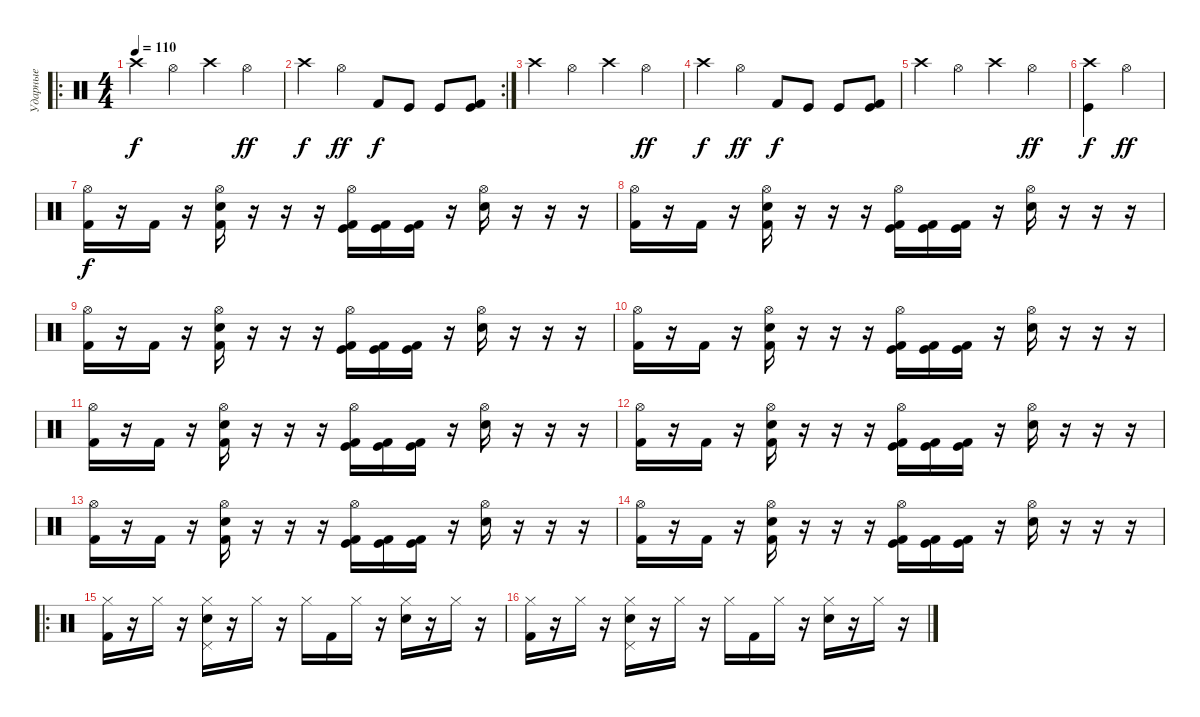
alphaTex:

\track ("Ударные" "Ударные") {instrument percussion}
\staff {score}
\articulation defaults
\ro
\ts (4 4)
\tempo 110
\clef neutral
\ks c "Crash high (hit)".4{dy f} "Hi-Hat (open)".4 "Crash high (hit)".4 "Hi-Hat (open)".4{dy ff}
|
\rc 2 "Crash high (hit)".4{dy f} "Hi-Hat (open)".4{dy ff} "Kick (hit) 2".8{dy f} "Kick (hit)".8 "Kick (hit)".8
("Kick (hit)" "Kick (hit) 2").8 |
"Crash high (hit)".4 "Hi-Hat (open)".4 "Crash high (hit)".4 "Hi-Hat (open)".4{dy ff} |
"Crash high (hit)".4{dy f} "Hi-Hat (open)".4{dy ff} "Kick (hit) 2".8{dy f} "Kick (hit)".8 "Kick (hit)".8 ("Kick (hit)" "Kick (hit) 2").8 |
"Crash high (hit)".4 "Hi-Hat (open)".4 "Crash high (hit)".4 "Hi-Hat (open)".4{dy ff} |
("Crash high (hit)" "Kick (hit)").4{dy f} "Hi-Hat (open)".4{dy ff} |
("Hi-Hat (open)" "Kick (hit) 2").16{dy f} r.16 "Kick (hit) 2".16 r.16 ("Hi-Hat (open)" "Electric Snare (hit)" "Kick (hit) 2").16 r.16 r.16 r.16 ("Hi-Hat (open)" "Kick (hit)" "Kick (hit) 2").16 ("Kick (hit)" "Kick (hit) 2").16 ("Kick (hit)" "Kick (hit) 2").16 r.16 ("Hi-Hat (open)" "Electric Snare (hit)").16 r.16 r.16 r.16 |
("Hi-Hat (open)" "Kick (hit) 2").16 r.16 "Kick (hit) 2".16 r.16 ("Hi-Hat (open)" "Electric Snare (hit)" "Kick (hit) 2").16 r.16 r.16 r.16 ("Hi-Hat (open)" "Kick (hit)" "Kick (hit) 2").16 ("Kick (hit)" "Kick (hit) 2").16 ("Kick (hit)" "Kick (hit) 2").16 r.16 ("Hi-Hat (open)" "Electric Snare (hit)").16 r.16 r.16 r.16 |
("Hi-Hat (open)" "Kick (hit) 2").16 r.16 "Kick (hit) 2".16 r.16 ("Hi-Hat (open)" "Electric Snare (hit)" "Kick (hit) 2").16 r.16 r.16 r.16 ("Hi-Hat (open)" "Kick (hit)" "Kick (hit) 2").16 ("Kick (hit)" "Kick (hit) 2").16 ("Kick (hit)" "Kick (hit) 2").16 r.16 ("Hi-Hat (open)" "Electric Snare (hit)").16 r.16 r.16 r.16 |
("Hi-Hat (open)" "Kick (hit) 2").16 r.16 "Kick (hit) 2".16 r.16 ("Hi-Hat (open)" "Electric Snare (hit)" "Kick (hit) 2").16 r.16 r.16 r.16 ("Hi-Hat (open)" "Kick (hit)" "Kick (hit) 2").16 ("Kick (hit)" "Kick (hit) 2").16 ("Kick (hit)" "Kick (hit) 2").16 r.16 ("Hi-Hat (open)" "Electric Snare (hit)").16 r.16 r.16 r.16 |
("Hi-Hat (open)" "Kick (hit) 2").16 r.16 "Kick (hit) 2".16 r.16 ("Hi-Hat (open)" "Electric Snare (hit)" "Kick (hit) 2").16 r.16 r.16 r.16 ("Hi-Hat (open)" "Kick (hit)" "Kick (hit) 2").16 ("Kick (hit)" "Kick (hit) 2").16 ("Kick (hit)" "Kick (hit) 2").16 r.16 ("Hi-Hat (open)" "Electric Snare (hit)").16 r.16 r.16 r.16 |
("Hi-Hat (open)" "Kick (hit) 2").16 r.16 "Kick (hit) 2".16 r.16 ("Hi-Hat (open)" "Electric Snare (hit)" "Kick (hit) 2").16 r.16 r.16 r.16 ("Hi-Hat (open)" "Kick (hit)" "Kick (hit) 2").16 ("Kick (hit)" "Kick (hit) 2").16 ("Kick (hit)" "Kick (hit) 2").16 r.16 ("Hi-Hat (open)" "Electric Snare (hit)").16 r.16 r.16 r.16 |
("Hi-Hat (open)" "Kick (hit) 2").16 r.16 "Kick (hit) 2".16 r.16 ("Hi-Hat (open)" "Electric Snare (hit)" "Kick (hit) 2").16 r.16 r.16 r.16 ("Hi-Hat (open)" "Kick (hit)" "Kick (hit) 2").16 ("Kick (hit)" "Kick (hit) 2").16 ("Kick (hit)" "Kick (hit) 2").16 r.16 ("Hi-Hat (open)" "Electric Snare (hit)").16 r.16 r.16 r.16 |
("Hi-Hat (open)" "Kick (hit) 2").16 r.16 "Kick (hit) 2".16 r.16 ("Hi-Hat (open)" "Electric Snare (hit)" "Kick (hit) 2").16 r.16 r.16 r.16 ("Hi-Hat (open)" "Kick (hit)" "Kick (hit) 2").16 ("Kick (hit)" "Kick (hit) 2").16 ("Kick (hit)" "Kick (hit) 2").16 r.16 ("Hi-Hat (open)" "Electric Snare (hit)").16 r.16 r.16 r.16 |
\ro
("Hi-Hat (closed)" "Kick (hit) 2").16 r.16 "Hi-Hat (closed)".16 r.16 ("Pedal Hi-Hat (hit)" "Hi-Hat (closed)" "Electric Snare (hit)").16 r.16 "Hi-Hat (closed)".16 r.16 "Hi-Hat (closed)".16 "Kick (hit) 2".16 "Hi-Hat (closed)".16 r.16 ("Hi-Hat (closed)" "Electric Snare (hit)").16 r.16 "Hi-Hat (closed)".16 r.16 |
("Hi-Hat (closed)" "Kick (hit) 2").16 r.16 "Hi-Hat (closed)".16 r.16 ("Pedal Hi-Hat (hit)" "Hi-Hat (closed)" "Electric Snare (hit)").16 r.16 "Hi-Hat (closed)".16 r.16 "Hi-Hat (closed)".16 "Kick (hit) 2".16 "Hi-Hat (closed)".16 r.16 ("Hi-Hat (closed)" "Electric Snare (hit)").16 r.16 "Hi-Hat (closed)".16 r.16
